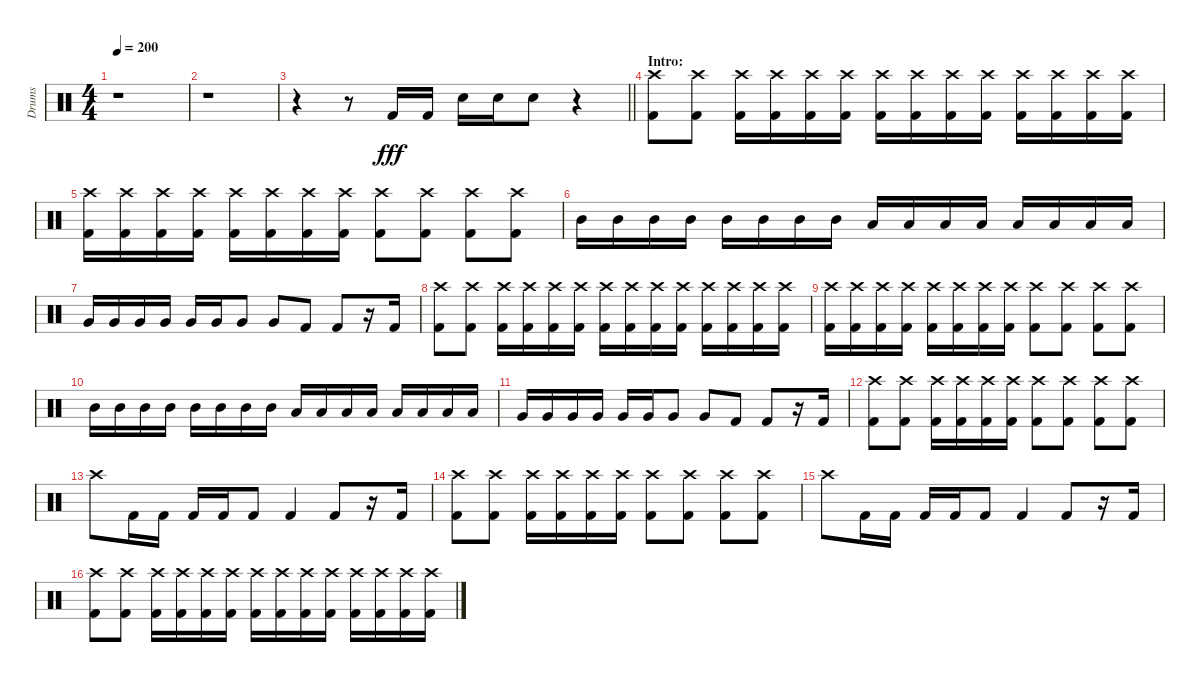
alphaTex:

\track ("Drums" "Drums") {instrument percussion}
\staff {score}
\articulation defaults
\ts (4 4)
\tempo 200
\clef neutral
\ks c
r.1{dy fff} |
r.1 |
\barLineRight lightlight
r.4 r.8 "Kick (hit) 2".16 "Kick (hit) 2".16 "Electric Snare (hit)".16 "Electric Snare (hit)".16 "Electric Snare (hit)".8 r.4 |
\section ("" "Intro:")
("Crash high (hit)" "Kick (hit) 2").8 ("Crash high (hit)" "Kick (hit) 2").8 ("Crash high (hit)" "Kick (hit) 2").16 ("Crash high (hit)" "Kick (hit) 2").16 ("Crash high (hit)" "Kick (hit) 2").16 ("Crash high (hit)" "Kick (hit) 2").16 ("Crash high (hit)" "Kick (hit) 2").16 ("Crash high (hit)" "Kick (hit) 2").16 ("Crash high (hit)" "Kick (hit) 2").16 ("Crash high (hit)" "Kick (hit) 2").16 ("Crash high (hit)" "Kick (hit) 2").16 ("Crash high (hit)" "Kick (hit) 2").16 ("Crash high (hit)" "Kick (hit) 2").16 ("Crash high (hit)" "Kick (hit) 2").16 |
("Crash high (hit)" "Kick (hit) 2").16 ("Crash high (hit)" "Kick (hit) 2").16 ("Crash high (hit)" "Kick (hit) 2").16 ("Crash high (hit)" "Kick (hit) 2").16 ("Crash high (hit)" "Kick (hit) 2").16 ("Crash high (hit)" "Kick (hit) 2").16 ("Crash high (hit)" "Kick (hit) 2").16 ("Crash high (hit)" "Kick (hit) 2").16 ("Crash high (hit)" "Kick (hit) 2").8 ("Crash high (hit)" "Kick (hit) 2").8 ("Crash high (hit)" "Kick (hit) 2").8 ("Crash high (hit)" "Kick (hit) 2").8 |
"Mid Tom (hit)".16 "Mid Tom (hit)".16 "Mid Tom (hit)".16 "Mid Tom (hit)".16 "Mid Tom (hit)".16 "Mid Tom (hit)".16 "Mid Tom (hit)".16 "Mid Tom (hit)".16 "Low Tom (hit)".16 "Low Tom (hit)".16 "Low Tom (hit)".16 "Low Tom (hit)".16 "Low Tom (hit)".16 "Low Tom (hit)".16 "Low Tom (hit)".16 "Low Tom (hit)".16 |
"Very Low Tom (hit)".16 "Very Low Tom (hit)".16 "Very Low Tom (hit)".16 "Very Low Tom (hit)".16 "Very Low Tom (hit)".16 "Very Low Tom (hit)".16 "Very Low Tom (hit)".8 "Very Low Tom (hit)".8 "Kick (hit) 2".8 "Kick (hit) 2".8 r.16 "Kick (hit) 2".16 |
("Crash high (hit)" "Kick (hit) 2").8 ("Crash high (hit)" "Kick (hit) 2").8 ("Crash high (hit)" "Kick (hit) 2").16 ("Crash high (hit)" "Kick (hit) 2").16 ("Crash high (hit)" "Kick (hit) 2").16 ("Crash high (hit)" "Kick (hit) 2").16 ("Crash high (hit)" "Kick (hit) 2").16 ("Crash high (hit)" "Kick (hit) 2").16 ("Crash high (hit)" "Kick (hit) 2").16 ("Crash high (hit)" "Kick (hit) 2").16 ("Crash high (hit)" "Kick (hit) 2").16 ("Crash high (hit)" "Kick (hit) 2").16 ("Crash high (hit)" "Kick (hit) 2").16 ("Crash high (hit)" "Kick (hit) 2").16 |
("Crash high (hit)" "Kick (hit) 2").16 ("Crash high (hit)" "Kick (hit) 2").16 ("Crash high (hit)" "Kick (hit) 2").16 ("Crash high (hit)" "Kick (hit) 2").16 ("Crash high (hit)" "Kick (hit) 2").16 ("Crash high (hit)" "Kick (hit) 2").16 ("Crash high (hit)" "Kick (hit) 2").16 ("Crash high (hit)" "Kick (hit) 2").16 ("Crash high (hit)" "Kick (hit) 2").8 ("Crash high (hit)" "Kick (hit) 2").8 ("Crash high (hit)" "Kick (hit) 2").8 ("Crash high (hit)" "Kick (hit) 2").8 |
"Mid Tom (hit)".16 "Mid Tom (hit)".16 "Mid Tom (hit)".16 "Mid Tom (hit)".16 "Mid Tom (hit)".16 "Mid Tom (hit)".16 "Mid Tom (hit)".16 "Mid Tom (hit)".16 "Low Tom (hit)".16 "Low Tom (hit)".16 "Low Tom (hit)".16 "Low Tom (hit)".16 "Low Tom (hit)".16 "Low Tom (hit)".16 "Low Tom (hit)".16 "Low Tom (hit)".16 |
"Very Low Tom (hit)".16 "Very Low Tom (hit)".16 "Very Low Tom (hit)".16 "Very Low Tom (hit)".16 "Very Low Tom (hit)".16 "Very Low Tom (hit)".16 "Very Low Tom (hit)".8 "Very Low Tom (hit)".8 "Kick (hit) 2".8 "Kick (hit) 2".8 r.16 "Kick (hit) 2".16 |
("Crash high (hit)" "Kick (hit) 2").8 ("Crash high (hit)" "Kick (hit) 2").8 ("Crash high (hit)" "Kick (hit) 2").16 ("Crash high (hit)" "Kick (hit) 2").16 ("Crash high (hit)" "Kick (hit) 2").16 ("Crash high (hit)" "Kick (hit) 2").16 ("Crash high (hit)" "Kick (hit) 2").8 ("Crash high (hit)" "Kick (hit) 2").8 ("Crash high (hit)" "Kick (hit) 2").8 ("Crash high (hit)" "Kick (hit) 2").8 |
"Crash high (hit)".8 "Kick (hit) 2".16 "Kick (hit) 2".16 "Kick (hit) 2".16 "Kick (hit) 2".16 "Kick (hit) 2".8 "Kick (hit) 2".4 "Kick (hit) 2".8 r.16 "Kick (hit) 2".16 |
("Crash high (hit)" "Kick (hit) 2").8 ("Crash high (hit)" "Kick (hit) 2").8 ("Crash high (hit)" "Kick (hit) 2").16 ("Crash high (hit)" "Kick (hit) 2").16 ("Crash high (hit)" "Kick (hit) 2").16 ("Crash high (hit)" "Kick (hit) 2").16 ("Crash high (hit)" "Kick (hit) 2").8 ("Crash high (hit)" "Kick (hit) 2").8 ("Crash high (hit)" "Kick (hit) 2").8 ("Crash high (hit)" "Kick (hit) 2").8 |
"Crash high (hit)".8 "Kick (hit) 2".16 "Kick (hit) 2".16 "Kick (hit) 2".16 "Kick (hit) 2".16 "Kick (hit) 2".8 "Kick (hit) 2".4 "Kick (hit) 2".8 r.16 "Kick (hit) 2".16 |
("Crash high (hit)" "Kick (hit) 2").8 ("Crash high (hit)" "Kick (hit) 2").8 ("Crash high (hit)" "Kick (hit) 2").16 ("Crash high (hit)" "Kick (hit) 2").16 ("Crash high (hit)" "Kick (hit) 2").16 ("Crash high (hit)" "Kick (hit) 2").16 ("Crash high (hit)" "Kick (hit) 2").16 ("Crash high (hit)" "Kick (hit) 2").16 ("Crash high (hit)" "Kick (hit) 2").16 ("Crash high (hit)" "Kick (hit) 2").16 ("Crash high (hit)" "Kick (hit) 2").16 ("Crash high (hit)" "Kick (hit) 2").16 ("Crash high (hit)" "Kick (hit) 2").16 ("Crash high (hit)" "Kick (hit) 2").16
